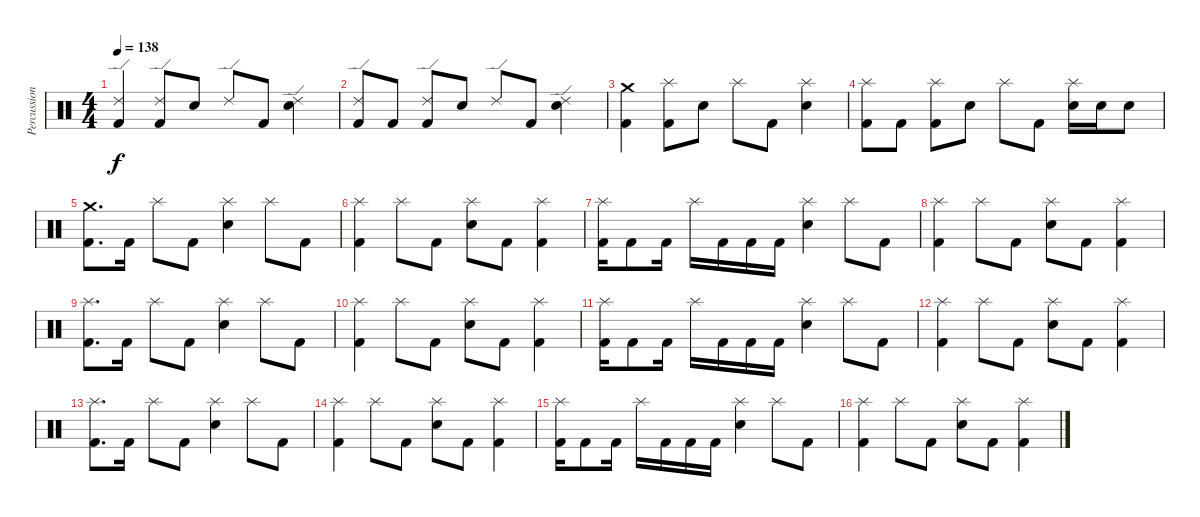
\track ("Percussion" "Percussion") {instrument percussion}
\staff {score}
\articulation defaults
\ts (4 4)
\tempo 138
\clef neutral
\ks c
("Ride (edge) 2" "Kick (hit) 2").4{dy f} ("Ride (edge) 2" "Kick (hit) 2").8 "Snare (hit) 2".8 "Ride (edge) 2".8 "Kick (hit) 2".8 ("Ride (edge) 2" "Snare (hit) 2").4 |
("Ride (edge) 2" "Kick (hit) 2").8 "Kick (hit) 2".8 ("Ride (edge) 2" "Kick (hit) 2").8 "Snare (hit) 2".8 "Ride (edge) 2".8 "Kick (hit) 2".8 ("Ride (edge) 2" "Snare (hit) 2").4 |
("Crash medium (hit)" "Kick (hit) 2").4 ("Splash (hit)" "Kick (hit) 2").8 "Snare (hit) 2".8 "Splash (hit)".8 "Kick (hit) 2".8 ("Splash (hit)" "Snare (hit) 2").4 |
("Splash (hit)" "Kick (hit) 2").8 "Kick (hit) 2".8 ("Splash (hit)" "Kick (hit) 2").8 "Snare (hit) 2".8 "Splash (hit)".8 "Kick (hit) 2".8 ("Splash (hit)" "Snare (hit) 2").16 "Snare (hit) 2".16 "Snare (hit) 2".8 |
("Crash medium (hit)" "Kick (hit) 2").8{d} "Kick (hit) 2".16 "Splash (hit)".8 "Kick (hit) 2".8 ("Splash (hit)" "Snare (hit) 2").4 "Splash (hit)".8 "Kick (hit) 2".8 |
("Splash (hit)" "Kick (hit) 2").4 "Splash (hit)".8 "Kick (hit) 2".8 ("Splash (hit)" "Electric Snare (hit)").8 "Kick (hit) 2".8 ("Splash (hit)" "Kick (hit) 2").4 |
("Splash (hit)" "Kick (hit) 2").16 "Kick (hit) 2".8 "Kick (hit) 2".16 "Splash (hit)".16 "Kick (hit) 2".16 "Kick (hit) 2".16 "Kick (hit) 2".16 ("Splash (hit)" "Snare (hit) 2").4 "Splash (hit)".8 "Kick (hit) 2".8 |
("Splash (hit)" "Kick (hit) 2").4 "Splash (hit)".8 "Kick (hit) 2".8 ("Splash (hit)" "Electric Snare (hit)").8 "Kick (hit) 2".8 ("Splash (hit)" "Kick (hit) 2").4 |
("Splash (hit)" "Kick (hit) 2").8{d} "Kick (hit) 2".16 "Splash (hit)".8 "Kick (hit) 2".8 ("Splash (hit)" "Snare (hit) 2").4 "Splash (hit)".8 "Kick (hit) 2".8 |
("Splash (hit)" "Kick (hit) 2").4 "Splash (hit)".8 "Kick (hit) 2".8 ("Splash (hit)" "Electric Snare (hit)").8 "Kick (hit) 2".8 ("Splash (hit)" "Kick (hit) 2").4 |
("Splash (hit)" "Kick (hit) 2").16 "Kick (hit) 2".8 "Kick (hit) 2".16 "Splash (hit)".16 "Kick (hit) 2".16 "Kick (hit) 2".16 "Kick (hit) 2".16 ("Splash (hit)" "Snare (hit) 2").4 "Splash (hit)".8 "Kick (hit) 2".8 |
("Splash (hit)" "Kick (hit) 2").4 "Splash (hit)".8 "Kick (hit) 2".8 ("Splash (hit)" "Electric Snare (hit)").8 "Kick (hit) 2".8 ("Splash (hit)" "Kick (hit) 2").4 |
("Splash (hit)" "Kick (hit) 2").8{d} "Kick (hit) 2".16 "Splash (hit)".8 "Kick (hit) 2".8 ("Splash (hit)" "Snare (hit) 2").4 "Splash (hit)".8 "Kick (hit) 2".8 |
("Splash (hit)" "Kick (hit) 2").4 "Splash (hit)".8 "Kick (hit) 2".8 ("Splash (hit)" "Electric Snare (hit)").8 "Kick (hit) 2".8 ("Splash (hit)" "Kick (hit) 2").4 |
("Splash (hit)" "Kick (hit) 2").16 "Kick (hit) 2".8 "Kick (hit) 2".16 "Splash (hit)".16 "Kick (hit) 2".16 "Kick (hit) 2".16 "Kick (hit) 2".16 ("Splash (hit)" "Snare (hit) 2").4 "Splash (hit)".8 "Kick (hit) 2".8 |
("Splash (hit)" "Kick (hit) 2").4 "Splash (hit)".8 "Kick (hit) 2".8 ("Splash (hit)" "Electric Snare (hit)").8 "Kick (hit) 2".8 ("Splash (hit)" "Kick (hit) 2").4
